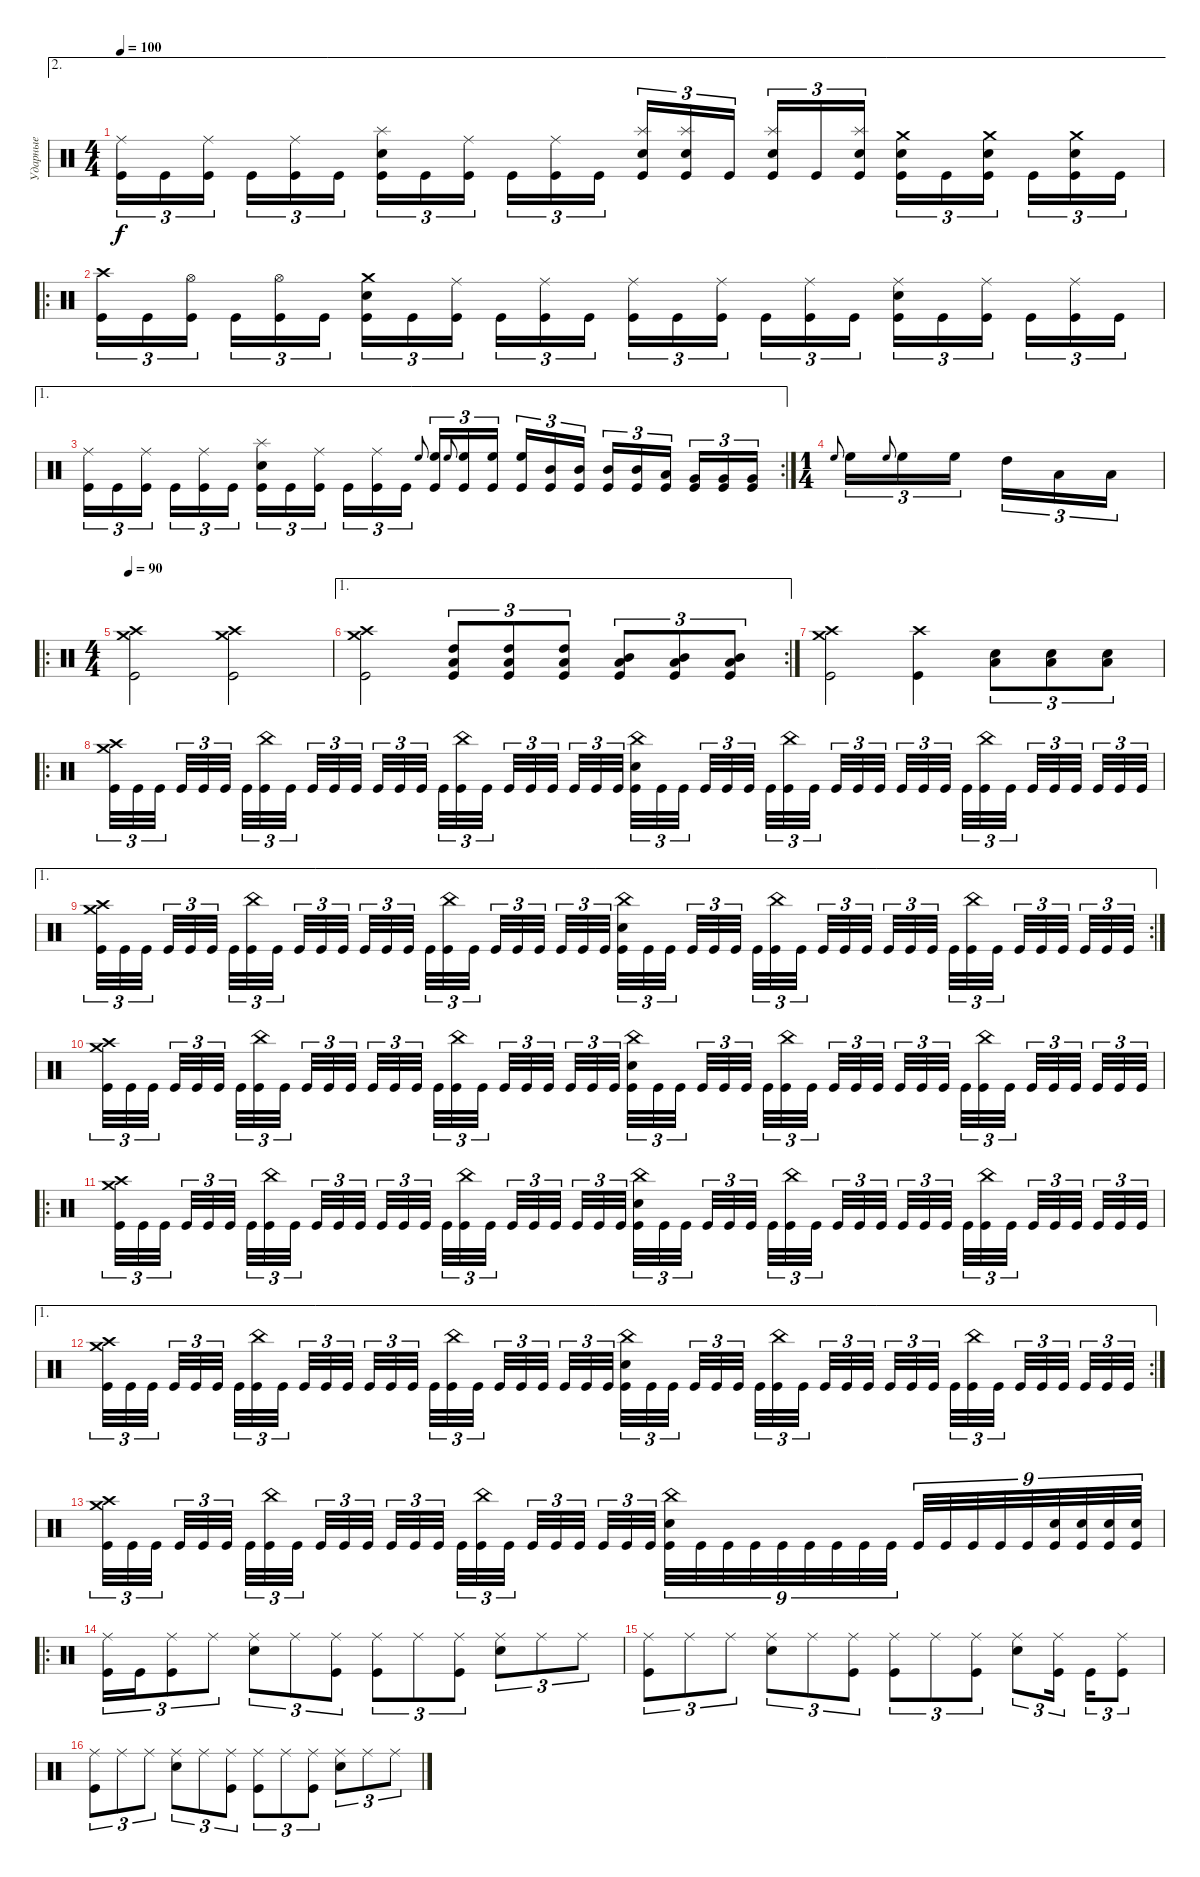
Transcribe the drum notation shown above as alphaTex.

\track ("Ударные" "Ударные") {instrument percussion}
\staff {score}
\articulation defaults
\ae 2
\ts (4 4)
\tempo 100
\clef neutral
\ks c
("Ride (middle)" "Kick (hit)").16{tu (3 2) dy f} "Kick (hit)".16{tu (3 2)} ("Ride (middle)" "Kick (hit)").16{tu (3 2) beam splitsecondary} "Kick (hit)".16{tu (3 2)} ("Ride (middle)" "Kick (hit)").16{tu (3 2)} "Kick (hit)".16{tu (3 2)} ("Splash (hit)" "Snare (hit) 2" "Kick (hit)").16{tu (3 2)} "Kick (hit)".16{tu (3 2)} ("Ride (middle)" "Kick (hit)").16{tu (3 2) beam splitsecondary} "Kick (hit)".16{tu (3 2)} ("Ride (middle)" "Kick (hit)").16{tu (3 2)} "Kick (hit)".16{tu (3 2)} ("Splash (hit)" "Snare (hit) 2" "Kick (hit)").16{tu (3 2)} ("Splash (hit)" "Snare (hit) 2" "Kick (hit)").16{tu (3 2)} "Kick (hit)".16{tu (3 2) beam splitsecondary} ("Splash (hit)" "Snare (hit) 2" "Kick (hit)").16{tu (3 2)} "Kick (hit)".16{tu (3 2)} ("Splash (hit)" "Snare (hit) 2" "Kick (hit)").16{tu (3 2)} ("Crash medium (hit)" "Snare (hit) 2" "Kick (hit)").16{tu (3 2)} "Kick (hit)".16{tu (3 2)} ("Crash medium (hit)" "Snare (hit) 2" "Kick (hit)").16{tu (3 2) beam splitsecondary} "Kick (hit)".16{tu (3 2)} ("Crash medium (hit)" "Snare (hit) 2" "Kick (hit)").16{tu (3 2)} "Kick (hit)".16{tu (3 2)} |
\ro
("Crash high (hit)" "Kick (hit)").16{tu (3 2)} "Kick (hit)".16{tu (3 2)} ("Hi-Hat (open)" "Kick (hit)").16{tu (3 2) beam splitsecondary} "Kick (hit)".16{tu (3 2)} ("Hi-Hat (open)" "Kick (hit)").16{tu (3 2)} "Kick (hit)".16{tu (3 2)} ("Crash medium (hit)" "Snare (hit) 2" "Kick (hit)").16{tu (3 2)} "Kick (hit)".16{tu (3 2)} ("Ride (middle)" "Kick (hit)").16{tu (3 2) beam splitsecondary} "Kick (hit)".16{tu (3 2)} ("Ride (middle)" "Kick (hit)").16{tu (3 2)} "Kick (hit)".16{tu (3 2)} ("Ride (middle)" "Kick (hit)").16{tu (3 2)} "Kick (hit)".16{tu (3 2)} ("Ride (middle)" "Kick (hit)").16{tu (3 2) beam splitsecondary} "Kick (hit)".16{tu (3 2)} ("Ride (middle)" "Kick (hit)").16{tu (3 2)} "Kick (hit)".16{tu (3 2)} ("Ride (middle)" "Snare (hit) 2" "Kick (hit)").16{tu (3 2)} "Kick (hit)".16{tu (3 2)} ("Ride (middle)" "Kick (hit)").16{tu (3 2) beam splitsecondary} "Kick (hit)".16{tu (3 2)} ("Ride (middle)" "Kick (hit)").16{tu (3 2)} "Kick (hit)".16{tu (3 2)} |
\ae 1
\rc 2
("Ride (middle)" "Kick (hit)").16{tu (3 2)} "Kick (hit)".16{tu (3 2)} ("Ride (middle)" "Kick (hit)").16{tu (3 2) beam splitsecondary} "Kick (hit)".16{tu (3 2)} ("Ride (middle)" "Kick (hit)").16{tu (3 2)} "Kick (hit)".16{tu (3 2)} ("Splash (hit)" "Snare (hit) 2" "Kick (hit)").16{tu (3 2)} "Kick (hit)".16{tu (3 2)} ("Ride (middle)" "Kick (hit)").16{tu (3 2) beam splitsecondary} "Kick (hit)".16{tu (3 2)} ("Ride (middle)" "Kick (hit)").16{tu (3 2)} "Kick (hit)".16{tu (3 2)} "High Floor Tom (hit)".8{gr onbeat} ("High Floor Tom (hit)" "Kick (hit)").16{tu (3 2)} "High Floor Tom (hit)".8{gr onbeat} ("High Floor Tom (hit)" "Kick (hit)").16{tu (3 2)} ("High Floor Tom (hit)" "Kick (hit)").16{tu (3 2) beam splitsecondary} ("High Floor Tom (hit)" "Kick (hit)").16{tu (3 2)} ("Mid Tom (hit)" "Kick (hit)").16{tu (3 2)} ("Mid Tom (hit)" "Kick (hit)").16{tu (3 2)} ("Mid Tom (hit)" "Kick (hit)").16{tu (3 2)} ("Mid Tom (hit)" "Kick (hit)").16{tu (3 2)} ("Low Tom (hit)" "Kick (hit)").16{tu (3 2) beam splitsecondary} ("Very Low Tom (hit)" "Kick (hit)").16{tu (3 2)} ("Very Low Tom (hit)" "Kick (hit)").16{tu (3 2)} ("Very Low Tom (hit)" "Kick (hit)").16{tu (3 2)} |
\ts (1 4)
"High Floor Tom (hit)".8{gr onbeat} "High Floor Tom (hit)".16{tu (3 2)} "High Floor Tom (hit)".8{gr onbeat} "High Floor Tom (hit)".16{tu (3 2)} "High Floor Tom (hit)".16{tu (3 2) beam splitsecondary} "High Tom (hit)".16{tu (3 2)} "Low Tom (hit)".16{tu (3 2)} "Low Tom (hit)".16{tu (3 2)} |
\ro
\ts (4 4)
\tempo 90
("Crash high (hit)" "Crash medium (hit)" "Kick (hit)").2 ("Crash high (hit)" "Crash medium (hit)" "Kick (hit)").2 |
\ae 1
\rc 2
("Crash high (hit)" "Crash medium (hit)" "Kick (hit)").2 ("Kick (hit)" "High Tom (hit)" "Low Floor Tom (hit)").8{tu (3 2)} ("Kick (hit)" "High Tom (hit)" "Low Floor Tom (hit)").8{tu (3 2)} ("Kick (hit)" "High Tom (hit)" "Low Floor Tom (hit)").8{tu (3 2)} ("Kick (hit)" "Mid Tom (hit)" "Low Floor Tom (hit)").8{tu (3 2)} ("Kick (hit)" "Mid Tom (hit)" "Low Floor Tom (hit)").8{tu (3 2)} ("Kick (hit)" "Mid Tom (hit)" "Low Floor Tom (hit)").8{tu (3 2)} |
("Crash high (hit)" "Crash medium (hit)" "Kick (hit)").2 ("Crash high (hit)" "Kick (hit)").4 ("Low Floor Tom (hit)" "Snare (hit) 2").8{tu (3 2)} ("Low Floor Tom (hit)" "Snare (hit) 2").8{tu (3 2)} ("Low Floor Tom (hit)" "Snare (hit) 2").8{tu (3 2)} |
\ro
("Crash medium (hit)" "Crash high (hit)" "Kick (hit)").32{tu (3 2)} "Kick (hit)".32{tu (3 2)} "Kick (hit)".32{tu (3 2) beam splitsecondary} "Kick (hit)".32{tu (3 2)} "Kick (hit)".32{tu (3 2)} "Kick (hit)".32{tu (3 2) beam splitsecondary} "Kick (hit)".32{tu (3 2)} ("China (hit)" "Kick (hit)").32{tu (3 2)} "Kick (hit)".32{tu (3 2) beam splitsecondary} "Kick (hit)".32{tu (3 2)} "Kick (hit)".32{tu (3 2)} "Kick (hit)".32{tu (3 2)} "Kick (hit)".32{tu (3 2)} "Kick (hit)".32{tu (3 2)} "Kick (hit)".32{tu (3 2) beam splitsecondary} "Kick (hit)".32{tu (3 2)} ("China (hit)" "Kick (hit)").32{tu (3 2)} "Kick (hit)".32{tu (3 2) beam splitsecondary} "Kick (hit)".32{tu (3 2)} "Kick (hit)".32{tu (3 2)} "Kick (hit)".32{tu (3 2) beam splitsecondary} "Kick (hit)".32{tu (3 2)} "Kick (hit)".32{tu (3 2)} "Kick (hit)".32{tu (3 2)} ("Snare (hit) 2" "China (hit)" "Kick (hit)").32{tu (3 2)} "Kick (hit)".32{tu (3 2)} "Kick (hit)".32{tu (3 2) beam splitsecondary} "Kick (hit)".32{tu (3 2)} "Kick (hit)".32{tu (3 2)} "Kick (hit)".32{tu (3 2) beam splitsecondary} "Kick (hit)".32{tu (3 2)} ("China (hit)" "Kick (hit)").32{tu (3 2)} "Kick (hit)".32{tu (3 2) beam splitsecondary} "Kick (hit)".32{tu (3 2)} "Kick (hit)".32{tu (3 2)} "Kick (hit)".32{tu (3 2)} "Kick (hit)".32{tu (3 2)} "Kick (hit)".32{tu (3 2)} "Kick (hit)".32{tu (3 2) beam splitsecondary} "Kick (hit)".32{tu (3 2)} ("China (hit)" "Kick (hit)").32{tu (3 2)} "Kick (hit)".32{tu (3 2) beam splitsecondary} "Kick (hit)".32{tu (3 2)} "Kick (hit)".32{tu (3 2)} "Kick (hit)".32{tu (3 2) beam splitsecondary} "Kick (hit)".32{tu (3 2)} "Kick (hit)".32{tu (3 2)} "Kick (hit)".32{tu (3 2)} |
\ae 1
\rc 2
("Crash medium (hit)" "Crash high (hit)" "Kick (hit)").32{tu (3 2)} "Kick (hit)".32{tu (3 2)} "Kick (hit)".32{tu (3 2) beam splitsecondary} "Kick (hit)".32{tu (3 2)} "Kick (hit)".32{tu (3 2)} "Kick (hit)".32{tu (3 2) beam splitsecondary} "Kick (hit)".32{tu (3 2)} ("China (hit)" "Kick (hit)").32{tu (3 2)} "Kick (hit)".32{tu (3 2) beam splitsecondary} "Kick (hit)".32{tu (3 2)} "Kick (hit)".32{tu (3 2)} "Kick (hit)".32{tu (3 2)} "Kick (hit)".32{tu (3 2)} "Kick (hit)".32{tu (3 2)} "Kick (hit)".32{tu (3 2) beam splitsecondary} "Kick (hit)".32{tu (3 2)} ("China (hit)" "Kick (hit)").32{tu (3 2)} "Kick (hit)".32{tu (3 2) beam splitsecondary} "Kick (hit)".32{tu (3 2)} "Kick (hit)".32{tu (3 2)} "Kick (hit)".32{tu (3 2) beam splitsecondary} "Kick (hit)".32{tu (3 2)} "Kick (hit)".32{tu (3 2)} "Kick (hit)".32{tu (3 2)} ("Snare (hit) 2" "China (hit)" "Kick (hit)").32{tu (3 2)} "Kick (hit)".32{tu (3 2)} "Kick (hit)".32{tu (3 2) beam splitsecondary} "Kick (hit)".32{tu (3 2)} "Kick (hit)".32{tu (3 2)} "Kick (hit)".32{tu (3 2) beam splitsecondary} "Kick (hit)".32{tu (3 2)} ("China (hit)" "Kick (hit)").32{tu (3 2)} "Kick (hit)".32{tu (3 2) beam splitsecondary} "Kick (hit)".32{tu (3 2)} "Kick (hit)".32{tu (3 2)} "Kick (hit)".32{tu (3 2)} "Kick (hit)".32{tu (3 2)} "Kick (hit)".32{tu (3 2)} "Kick (hit)".32{tu (3 2) beam splitsecondary} "Kick (hit)".32{tu (3 2)} ("China (hit)" "Kick (hit)").32{tu (3 2)} "Kick (hit)".32{tu (3 2) beam splitsecondary} "Kick (hit)".32{tu (3 2)} "Kick (hit)".32{tu (3 2)} "Kick (hit)".32{tu (3 2) beam splitsecondary} "Kick (hit)".32{tu (3 2)} "Kick (hit)".32{tu (3 2)} "Kick (hit)".32{tu (3 2)} |
("Crash medium (hit)" "Crash high (hit)" "Kick (hit)").32{tu (3 2)} "Kick (hit)".32{tu (3 2)} "Kick (hit)".32{tu (3 2) beam splitsecondary} "Kick (hit)".32{tu (3 2)} "Kick (hit)".32{tu (3 2)} "Kick (hit)".32{tu (3 2) beam splitsecondary} "Kick (hit)".32{tu (3 2)} ("China (hit)" "Kick (hit)").32{tu (3 2)} "Kick (hit)".32{tu (3 2) beam splitsecondary} "Kick (hit)".32{tu (3 2)} "Kick (hit)".32{tu (3 2)} "Kick (hit)".32{tu (3 2)} "Kick (hit)".32{tu (3 2)} "Kick (hit)".32{tu (3 2)} "Kick (hit)".32{tu (3 2) beam splitsecondary} "Kick (hit)".32{tu (3 2)} ("China (hit)" "Kick (hit)").32{tu (3 2)} "Kick (hit)".32{tu (3 2) beam splitsecondary} "Kick (hit)".32{tu (3 2)} "Kick (hit)".32{tu (3 2)} "Kick (hit)".32{tu (3 2) beam splitsecondary} "Kick (hit)".32{tu (3 2)} "Kick (hit)".32{tu (3 2)} "Kick (hit)".32{tu (3 2)} ("Snare (hit) 2" "China (hit)" "Kick (hit)").32{tu (3 2)} "Kick (hit)".32{tu (3 2)} "Kick (hit)".32{tu (3 2) beam splitsecondary} "Kick (hit)".32{tu (3 2)} "Kick (hit)".32{tu (3 2)} "Kick (hit)".32{tu (3 2) beam splitsecondary} "Kick (hit)".32{tu (3 2)} ("China (hit)" "Kick (hit)").32{tu (3 2)} "Kick (hit)".32{tu (3 2) beam splitsecondary} "Kick (hit)".32{tu (3 2)} "Kick (hit)".32{tu (3 2)} "Kick (hit)".32{tu (3 2)} "Kick (hit)".32{tu (3 2)} "Kick (hit)".32{tu (3 2)} "Kick (hit)".32{tu (3 2) beam splitsecondary} "Kick (hit)".32{tu (3 2)} ("China (hit)" "Kick (hit)").32{tu (3 2)} "Kick (hit)".32{tu (3 2) beam splitsecondary} "Kick (hit)".32{tu (3 2)} "Kick (hit)".32{tu (3 2)} "Kick (hit)".32{tu (3 2) beam splitsecondary} "Kick (hit)".32{tu (3 2)} "Kick (hit)".32{tu (3 2)} "Kick (hit)".32{tu (3 2)} |
\ro
("Crash medium (hit)" "Crash high (hit)" "Kick (hit)").32{tu (3 2)} "Kick (hit)".32{tu (3 2)} "Kick (hit)".32{tu (3 2) beam splitsecondary} "Kick (hit)".32{tu (3 2)} "Kick (hit)".32{tu (3 2)} "Kick (hit)".32{tu (3 2) beam splitsecondary} "Kick (hit)".32{tu (3 2)} ("China (hit)" "Kick (hit)").32{tu (3 2)} "Kick (hit)".32{tu (3 2) beam splitsecondary} "Kick (hit)".32{tu (3 2)} "Kick (hit)".32{tu (3 2)} "Kick (hit)".32{tu (3 2)} "Kick (hit)".32{tu (3 2)} "Kick (hit)".32{tu (3 2)} "Kick (hit)".32{tu (3 2) beam splitsecondary} "Kick (hit)".32{tu (3 2)} ("China (hit)" "Kick (hit)").32{tu (3 2)} "Kick (hit)".32{tu (3 2) beam splitsecondary} "Kick (hit)".32{tu (3 2)} "Kick (hit)".32{tu (3 2)} "Kick (hit)".32{tu (3 2) beam splitsecondary} "Kick (hit)".32{tu (3 2)} "Kick (hit)".32{tu (3 2)} "Kick (hit)".32{tu (3 2)} ("Snare (hit) 2" "China (hit)" "Kick (hit)").32{tu (3 2)} "Kick (hit)".32{tu (3 2)} "Kick (hit)".32{tu (3 2) beam splitsecondary} "Kick (hit)".32{tu (3 2)} "Kick (hit)".32{tu (3 2)} "Kick (hit)".32{tu (3 2) beam splitsecondary} "Kick (hit)".32{tu (3 2)} ("China (hit)" "Kick (hit)").32{tu (3 2)} "Kick (hit)".32{tu (3 2) beam splitsecondary} "Kick (hit)".32{tu (3 2)} "Kick (hit)".32{tu (3 2)} "Kick (hit)".32{tu (3 2)} "Kick (hit)".32{tu (3 2)} "Kick (hit)".32{tu (3 2)} "Kick (hit)".32{tu (3 2) beam splitsecondary} "Kick (hit)".32{tu (3 2)} ("China (hit)" "Kick (hit)").32{tu (3 2)} "Kick (hit)".32{tu (3 2) beam splitsecondary} "Kick (hit)".32{tu (3 2)} "Kick (hit)".32{tu (3 2)} "Kick (hit)".32{tu (3 2) beam splitsecondary} "Kick (hit)".32{tu (3 2)} "Kick (hit)".32{tu (3 2)} "Kick (hit)".32{tu (3 2)} |
\ae 1
\rc 2
("Crash medium (hit)" "Crash high (hit)" "Kick (hit)").32{tu (3 2)} "Kick (hit)".32{tu (3 2)} "Kick (hit)".32{tu (3 2) beam splitsecondary} "Kick (hit)".32{tu (3 2)} "Kick (hit)".32{tu (3 2)} "Kick (hit)".32{tu (3 2) beam splitsecondary} "Kick (hit)".32{tu (3 2)} ("China (hit)" "Kick (hit)").32{tu (3 2)} "Kick (hit)".32{tu (3 2) beam splitsecondary} "Kick (hit)".32{tu (3 2)} "Kick (hit)".32{tu (3 2)} "Kick (hit)".32{tu (3 2)} "Kick (hit)".32{tu (3 2)} "Kick (hit)".32{tu (3 2)} "Kick (hit)".32{tu (3 2) beam splitsecondary} "Kick (hit)".32{tu (3 2)} ("China (hit)" "Kick (hit)").32{tu (3 2)} "Kick (hit)".32{tu (3 2) beam splitsecondary} "Kick (hit)".32{tu (3 2)} "Kick (hit)".32{tu (3 2)} "Kick (hit)".32{tu (3 2) beam splitsecondary} "Kick (hit)".32{tu (3 2)} "Kick (hit)".32{tu (3 2)} "Kick (hit)".32{tu (3 2)} ("Snare (hit) 2" "China (hit)" "Kick (hit)").32{tu (3 2)} "Kick (hit)".32{tu (3 2)} "Kick (hit)".32{tu (3 2) beam splitsecondary} "Kick (hit)".32{tu (3 2)} "Kick (hit)".32{tu (3 2)} "Kick (hit)".32{tu (3 2) beam splitsecondary} "Kick (hit)".32{tu (3 2)} ("China (hit)" "Kick (hit)").32{tu (3 2)} "Kick (hit)".32{tu (3 2) beam splitsecondary} "Kick (hit)".32{tu (3 2)} "Kick (hit)".32{tu (3 2)} "Kick (hit)".32{tu (3 2)} "Kick (hit)".32{tu (3 2)} "Kick (hit)".32{tu (3 2)} "Kick (hit)".32{tu (3 2) beam splitsecondary} "Kick (hit)".32{tu (3 2)} ("China (hit)" "Kick (hit)").32{tu (3 2)} "Kick (hit)".32{tu (3 2) beam splitsecondary} "Kick (hit)".32{tu (3 2)} "Kick (hit)".32{tu (3 2)} "Kick (hit)".32{tu (3 2) beam splitsecondary} "Kick (hit)".32{tu (3 2)} "Kick (hit)".32{tu (3 2)} "Kick (hit)".32{tu (3 2)} |
("Crash medium (hit)" "Crash high (hit)" "Kick (hit)").32{tu (3 2)} "Kick (hit)".32{tu (3 2)} "Kick (hit)".32{tu (3 2) beam splitsecondary} "Kick (hit)".32{tu (3 2)} "Kick (hit)".32{tu (3 2)} "Kick (hit)".32{tu (3 2) beam splitsecondary} "Kick (hit)".32{tu (3 2)} ("China (hit)" "Kick (hit)").32{tu (3 2)} "Kick (hit)".32{tu (3 2) beam splitsecondary} "Kick (hit)".32{tu (3 2)} "Kick (hit)".32{tu (3 2)} "Kick (hit)".32{tu (3 2)} "Kick (hit)".32{tu (3 2)} "Kick (hit)".32{tu (3 2)} "Kick (hit)".32{tu (3 2) beam splitsecondary} "Kick (hit)".32{tu (3 2)} ("China (hit)" "Kick (hit)").32{tu (3 2)} "Kick (hit)".32{tu (3 2) beam splitsecondary} "Kick (hit)".32{tu (3 2)} "Kick (hit)".32{tu (3 2)} "Kick (hit)".32{tu (3 2) beam splitsecondary} "Kick (hit)".32{tu (3 2)} "Kick (hit)".32{tu (3 2)} "Kick (hit)".32{tu (3 2)} ("Snare (hit) 2" "China (hit)" "Kick (hit)").32{tu (9 8)} "Kick (hit)".32{tu (9 8)} "Kick (hit)".32{tu (9 8)} "Kick (hit)".32{tu (9 8)} "Kick (hit)".32{tu (9 8)} "Kick (hit)".32{tu (9 8)} "Kick (hit)".32{tu (9 8)} "Kick (hit)".32{tu (9 8)} "Kick (hit)".32{tu (9 8)} "Kick (hit)".32{tu (9 8)} "Kick (hit)".32{tu (9 8)} "Kick (hit)".32{tu (9 8)} "Kick (hit)".32{tu (9 8)} "Kick (hit)".32{tu (9 8)} ("Snare (hit) 2" "Kick (hit)").32{tu (9 8)} ("Snare (hit) 2" "Kick (hit)").32{tu (9 8)} ("Snare (hit) 2" "Kick (hit)").32{tu (9 8)} ("Snare (hit) 2" "Kick (hit)").32{tu (9 8)} |
\ro
("Ride (middle)" "Kick (hit)").16{tu (3 2)} "Kick (hit)".16{tu (3 2)} ("Ride (middle)" "Kick (hit)").8{tu (3 2)} "Ride (middle)".8{tu (3 2)} ("Ride (middle)" "Snare (hit) 2").8{tu (3 2)} "Ride (middle)".8{tu (3 2)} ("Ride (middle)" "Kick (hit)").8{tu (3 2)} ("Ride (middle)" "Kick (hit)").8{tu (3 2)} "Ride (middle)".8{tu (3 2)} ("Ride (middle)" "Kick (hit)").8{tu (3 2)} ("Ride (middle)" "Snare (hit) 2").8{tu (3 2)} "Ride (middle)".8{tu (3 2)} "Ride (middle)".8{tu (3 2)} |
("Ride (middle)" "Kick (hit)").8{tu (3 2)} "Ride (middle)".8{tu (3 2)} "Ride (middle)".8{tu (3 2)} ("Ride (middle)" "Snare (hit) 2").8{tu (3 2)} "Ride (middle)".8{tu (3 2)} ("Ride (middle)" "Kick (hit)").8{tu (3 2)} ("Ride (middle)" "Kick (hit)").8{tu (3 2)} "Ride (middle)".8{tu (3 2)} ("Ride (middle)" "Kick (hit)").8{tu (3 2)} ("Ride (middle)" "Snare (hit) 2").8{tu (3 2)} ("Ride (middle)" "Kick (hit)").16{tu (3 2) beam splitsecondary} "Kick (hit)".16{tu (3 2)} ("Ride (middle)" "Kick (hit)").8{tu (3 2)} |
("Ride (middle)" "Kick (hit)").8{tu (3 2)} "Ride (middle)".8{tu (3 2)} "Ride (middle)".8{tu (3 2)} ("Ride (middle)" "Snare (hit) 2").8{tu (3 2)} "Ride (middle)".8{tu (3 2)} ("Ride (middle)" "Kick (hit)").8{tu (3 2)} ("Ride (middle)" "Kick (hit)").8{tu (3 2)} "Ride (middle)".8{tu (3 2)} ("Ride (middle)" "Kick (hit)").8{tu (3 2)} ("Ride (middle)" "Snare (hit) 2").8{tu (3 2)} "Ride (middle)".8{tu (3 2)} "Ride (middle)".8{tu (3 2)}
